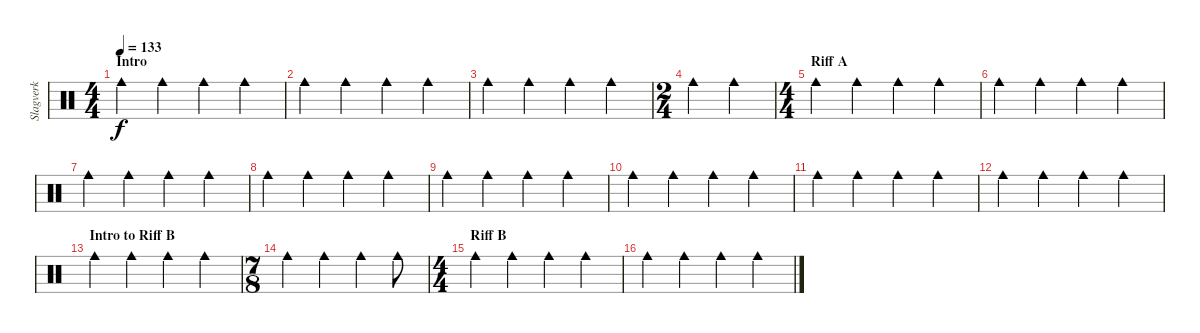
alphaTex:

\track ("Slagverk" "Slagverk") {instrument percussion}
\staff {score}
\articulation defaults
\ts (4 4)
\section ("" "Intro")
\tempo 133
\clef neutral
\ks c "Cowbell medium (hit)".4{dy f} "Cowbell medium (hit)".4 "Cowbell medium (hit)".4 "Cowbell medium (hit)".4
|
"Cowbell medium (hit)".4 "Cowbell medium (hit)".4 "Cowbell medium (hit)".4 "Cowbell medium (hit)".4 |
"Cowbell medium (hit)".4 "Cowbell medium (hit)".4 "Cowbell medium (hit)".4 "Cowbell medium (hit)".4 |
\ts (2 4)
"Cowbell medium (hit)".4 "Cowbell medium (hit)".4 |
\ts (4 4)
\section ("" "Riff A")
"Cowbell medium (hit)".4 "Cowbell medium (hit)".4 "Cowbell medium (hit)".4 "Cowbell medium (hit)".4 |
"Cowbell medium (hit)".4 "Cowbell medium (hit)".4 "Cowbell medium (hit)".4 "Cowbell medium (hit)".4 |
"Cowbell medium (hit)".4 "Cowbell medium (hit)".4 "Cowbell medium (hit)".4 "Cowbell medium (hit)".4 |
"Cowbell medium (hit)".4 "Cowbell medium (hit)".4 "Cowbell medium (hit)".4 "Cowbell medium (hit)".4 |
"Cowbell medium (hit)".4 "Cowbell medium (hit)".4 "Cowbell medium (hit)".4 "Cowbell medium (hit)".4 |
"Cowbell medium (hit)".4 "Cowbell medium (hit)".4 "Cowbell medium (hit)".4 "Cowbell medium (hit)".4 |
"Cowbell medium (hit)".4 "Cowbell medium (hit)".4 "Cowbell medium (hit)".4 "Cowbell medium (hit)".4 |
"Cowbell medium (hit)".4 "Cowbell medium (hit)".4 "Cowbell medium (hit)".4 "Cowbell medium (hit)".4 |
\section ("" "Intro to Riff B")
"Cowbell medium (hit)".4 "Cowbell medium (hit)".4 "Cowbell medium (hit)".4 "Cowbell medium (hit)".4 |
\ts (7 8)
"Cowbell medium (hit)".4 "Cowbell medium (hit)".4 "Cowbell medium (hit)".4 "Cowbell medium (hit)".8 |
\ts (4 4)
\section ("" "Riff B")
"Cowbell medium (hit)".4 "Cowbell medium (hit)".4 "Cowbell medium (hit)".4 "Cowbell medium (hit)".4 |
"Cowbell medium (hit)".4 "Cowbell medium (hit)".4 "Cowbell medium (hit)".4 "Cowbell medium (hit)".4
